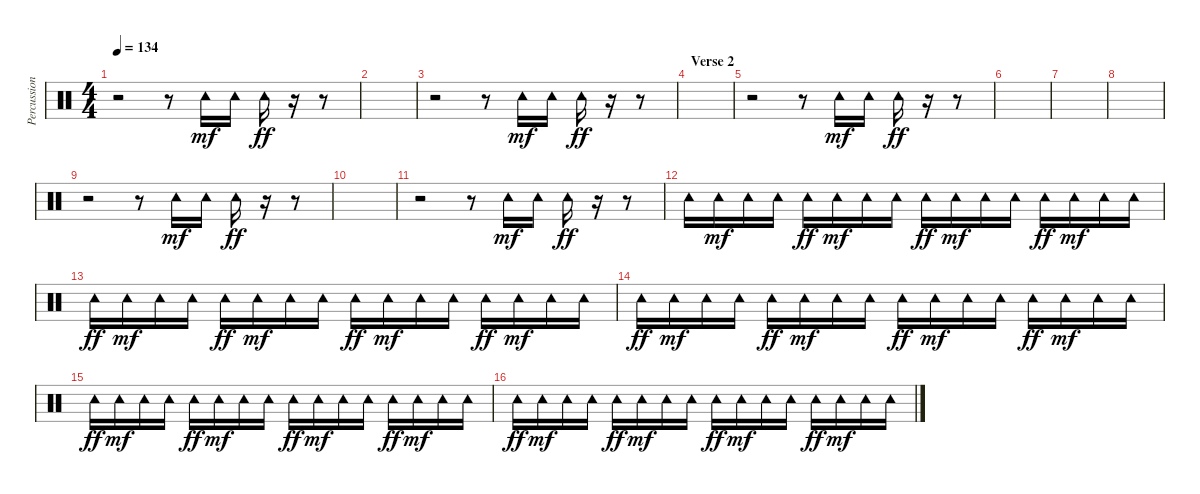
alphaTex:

\track ("Percussion" "Percussion") {instrument percussion}
\staff {score}
\articulation defaults
\ts (4 4)
\tempo 134
\clef neutral
\ks c
r.2{dy mf} r.8 "Tambourine (hit)".16 "Tambourine (hit)".16 "Tambourine (hit)".16{dy ff} r.16 r.8 |
|
r.2 r.8 "Tambourine (hit)".16{dy mf} "Tambourine (hit)".16 "Tambourine (hit)".16{dy ff} r.16 r.8 |
\section ("" "Verse 2")
|
r.2 r.8 "Tambourine (hit)".16{dy mf} "Tambourine (hit)".16 "Tambourine (hit)".16{dy ff} r.16 r.8 |
|
|
|
r.2 r.8 "Tambourine (hit)".16{dy mf} "Tambourine (hit)".16 "Tambourine (hit)".16{dy ff} r.16 r.8 |
|
r.2 r.8 "Tambourine (hit)".16{dy mf} "Tambourine (hit)".16 "Tambourine (hit)".16{dy ff} r.16 r.8 |
"Tambourine (hit)".16 "Tambourine (hit)".16{dy mf} "Tambourine (hit)".16 "Tambourine (hit)".16 "Tambourine (hit)".16{dy ff} "Tambourine (hit)".16{dy mf} "Tambourine (hit)".16 "Tambourine (hit)".16 "Tambourine (hit)".16{dy ff} "Tambourine (hit)".16{dy mf} "Tambourine (hit)".16 "Tambourine (hit)".16 "Tambourine (hit)".16{dy ff} "Tambourine (hit)".16{dy mf} "Tambourine (hit)".16 "Tambourine (hit)".16 |
"Tambourine (hit)".16{dy ff} "Tambourine (hit)".16{dy mf} "Tambourine (hit)".16 "Tambourine (hit)".16 "Tambourine (hit)".16{dy ff} "Tambourine (hit)".16{dy mf} "Tambourine (hit)".16 "Tambourine (hit)".16 "Tambourine (hit)".16{dy ff} "Tambourine (hit)".16{dy mf} "Tambourine (hit)".16 "Tambourine (hit)".16 "Tambourine (hit)".16{dy ff} "Tambourine (hit)".16{dy mf} "Tambourine (hit)".16 "Tambourine (hit)".16 |
"Tambourine (hit)".16{dy ff} "Tambourine (hit)".16{dy mf} "Tambourine (hit)".16 "Tambourine (hit)".16 "Tambourine (hit)".16{dy ff} "Tambourine (hit)".16{dy mf} "Tambourine (hit)".16 "Tambourine (hit)".16 "Tambourine (hit)".16{dy ff} "Tambourine (hit)".16{dy mf} "Tambourine (hit)".16 "Tambourine (hit)".16 "Tambourine (hit)".16{dy ff} "Tambourine (hit)".16{dy mf} "Tambourine (hit)".16 "Tambourine (hit)".16 |
"Tambourine (hit)".16{dy ff} "Tambourine (hit)".16{dy mf} "Tambourine (hit)".16 "Tambourine (hit)".16 "Tambourine (hit)".16{dy ff} "Tambourine (hit)".16{dy mf} "Tambourine (hit)".16 "Tambourine (hit)".16 "Tambourine (hit)".16{dy ff} "Tambourine (hit)".16{dy mf} "Tambourine (hit)".16 "Tambourine (hit)".16 "Tambourine (hit)".16{dy ff} "Tambourine (hit)".16{dy mf} "Tambourine (hit)".16 "Tambourine (hit)".16 |
"Tambourine (hit)".16{dy ff} "Tambourine (hit)".16{dy mf} "Tambourine (hit)".16 "Tambourine (hit)".16 "Tambourine (hit)".16{dy ff} "Tambourine (hit)".16{dy mf} "Tambourine (hit)".16 "Tambourine (hit)".16 "Tambourine (hit)".16{dy ff} "Tambourine (hit)".16{dy mf} "Tambourine (hit)".16 "Tambourine (hit)".16 "Tambourine (hit)".16{dy ff} "Tambourine (hit)".16{dy mf} "Tambourine (hit)".16 "Tambourine (hit)".16
